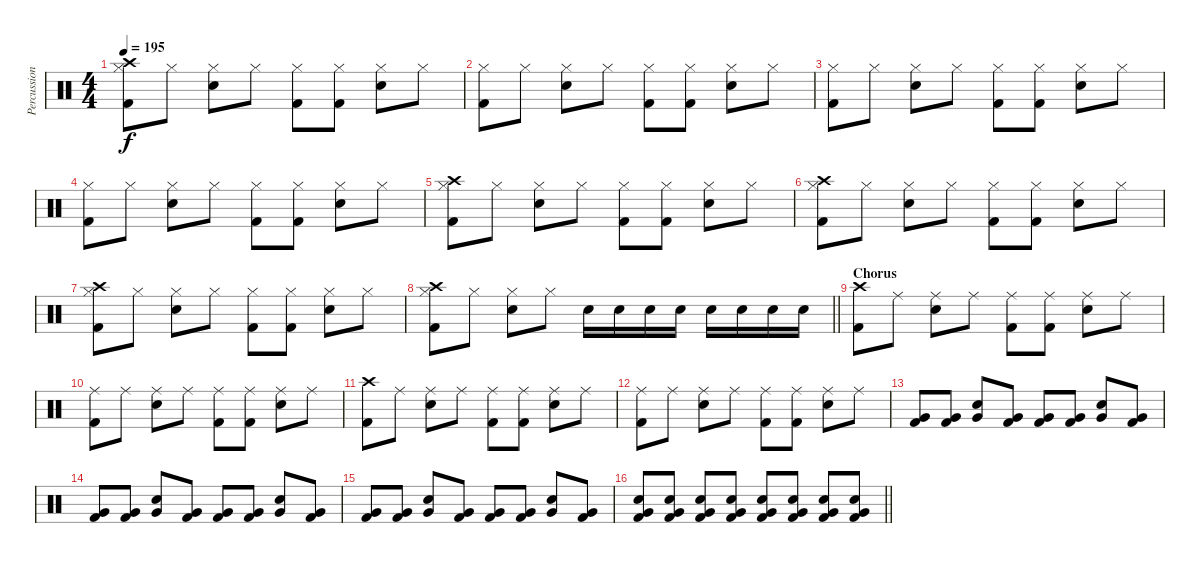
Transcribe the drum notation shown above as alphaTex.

\track ("Percussion" "Percussion") {instrument percussion}
\staff {score}
\articulation defaults
\ts (4 4)
\tempo 195
\clef neutral
\ks c
("Crash high (hit)" "Hi-Hat (closed)" "Kick (hit) 2").8{dy f} "Hi-Hat (closed)".8 ("Hi-Hat (closed)" "Electric Snare (hit)").8 "Hi-Hat (closed)".8 ("Hi-Hat (closed)" "Kick (hit) 2").8 ("Hi-Hat (closed)" "Kick (hit) 2").8 ("Hi-Hat (closed)" "Electric Snare (hit)").8 "Hi-Hat (closed)".8 |
("Hi-Hat (closed)" "Kick (hit) 2").8 "Hi-Hat (closed)".8 ("Hi-Hat (closed)" "Electric Snare (hit)").8 "Hi-Hat (closed)".8 ("Hi-Hat (closed)" "Kick (hit) 2").8 ("Hi-Hat (closed)" "Kick (hit) 2").8 ("Hi-Hat (closed)" "Electric Snare (hit)").8 "Hi-Hat (closed)".8 |
("Hi-Hat (closed)" "Kick (hit) 2").8 "Hi-Hat (closed)".8 ("Hi-Hat (closed)" "Electric Snare (hit)").8 "Hi-Hat (closed)".8 ("Hi-Hat (closed)" "Kick (hit) 2").8 ("Hi-Hat (closed)" "Kick (hit) 2").8 ("Hi-Hat (closed)" "Electric Snare (hit)").8 "Hi-Hat (closed)".8 |
("Hi-Hat (closed)" "Kick (hit) 2").8 "Hi-Hat (closed)".8 ("Hi-Hat (closed)" "Electric Snare (hit)").8 "Hi-Hat (closed)".8 ("Hi-Hat (closed)" "Kick (hit) 2").8 ("Hi-Hat (closed)" "Kick (hit) 2").8 ("Hi-Hat (closed)" "Electric Snare (hit)").8 "Hi-Hat (closed)".8 |
("Crash high (hit)" "Hi-Hat (closed)" "Kick (hit) 2").8 "Hi-Hat (closed)".8 ("Hi-Hat (closed)" "Electric Snare (hit)").8 "Hi-Hat (closed)".8 ("Hi-Hat (closed)" "Kick (hit) 2").8 ("Hi-Hat (closed)" "Kick (hit) 2").8 ("Hi-Hat (closed)" "Electric Snare (hit)").8 "Hi-Hat (closed)".8 |
("Crash high (hit)" "Hi-Hat (closed)" "Kick (hit) 2").8 "Hi-Hat (closed)".8 ("Hi-Hat (closed)" "Electric Snare (hit)").8 "Hi-Hat (closed)".8 ("Hi-Hat (closed)" "Kick (hit) 2").8 ("Hi-Hat (closed)" "Kick (hit) 2").8 ("Hi-Hat (closed)" "Electric Snare (hit)").8 "Hi-Hat (closed)".8 |
("Crash high (hit)" "Hi-Hat (closed)" "Kick (hit) 2").8 "Hi-Hat (closed)".8 ("Hi-Hat (closed)" "Electric Snare (hit)").8 "Hi-Hat (closed)".8 ("Hi-Hat (closed)" "Kick (hit) 2").8 ("Hi-Hat (closed)" "Kick (hit) 2").8 ("Hi-Hat (closed)" "Electric Snare (hit)").8 "Hi-Hat (closed)".8 |
\barLineRight lightlight
("Crash high (hit)" "Hi-Hat (closed)" "Kick (hit) 2").8 "Hi-Hat (closed)".8 ("Hi-Hat (closed)" "Electric Snare (hit)").8 "Hi-Hat (closed)".8 "Electric Snare (hit)".16 "Electric Snare (hit)".16 "Electric Snare (hit)".16 "Electric Snare (hit)".16 "Electric Snare (hit)".16 "Electric Snare (hit)".16 "Electric Snare (hit)".16 "Electric Snare (hit)".16 |
\section ("" "Chorus")
("Crash high (hit)" "Kick (hit) 2").8 "Ride (middle)".8 ("Ride (middle)" "Electric Snare (hit)").8 "Ride (middle)".8 ("Ride (middle)" "Kick (hit) 2").8 ("Ride (middle)" "Kick (hit) 2").8 ("Ride (middle)" "Electric Snare (hit)").8 "Ride (middle)".8 |
("Ride (middle)" "Kick (hit) 2").8 "Ride (middle)".8 ("Ride (middle)" "Electric Snare (hit)").8 "Ride (middle)".8 ("Ride (middle)" "Kick (hit) 2").8 ("Ride (middle)" "Kick (hit) 2").8 ("Ride (middle)" "Electric Snare (hit)").8 "Ride (middle)".8 |
("Crash high (hit)" "Kick (hit) 2").8 "Ride (middle)".8 ("Ride (middle)" "Electric Snare (hit)").8 "Ride (middle)".8 ("Ride (middle)" "Kick (hit) 2").8 ("Ride (middle)" "Kick (hit) 2").8 ("Ride (middle)" "Electric Snare (hit)").8 "Ride (middle)".8 |
("Ride (middle)" "Kick (hit) 2").8 "Ride (middle)".8 ("Ride (middle)" "Electric Snare (hit)").8 "Ride (middle)".8 ("Ride (middle)" "Kick (hit) 2").8 ("Ride (middle)" "Kick (hit) 2").8 ("Ride (middle)" "Electric Snare (hit)").8 "Ride (middle)".8 |
("Very Low Tom (hit)" "Kick (hit) 2").8 ("Very Low Tom (hit)" "Kick (hit) 2").8 ("Very Low Tom (hit)" "Electric Snare (hit)").8 ("Very Low Tom (hit)" "Kick (hit) 2").8 ("Very Low Tom (hit)" "Kick (hit) 2").8 ("Very Low Tom (hit)" "Kick (hit) 2").8 ("Very Low Tom (hit)" "Electric Snare (hit)").8 ("Very Low Tom (hit)" "Kick (hit) 2").8 |
("Very Low Tom (hit)" "Kick (hit) 2").8 ("Very Low Tom (hit)" "Kick (hit) 2").8 ("Very Low Tom (hit)" "Electric Snare (hit)").8 ("Very Low Tom (hit)" "Kick (hit) 2").8 ("Very Low Tom (hit)" "Kick (hit) 2").8 ("Very Low Tom (hit)" "Kick (hit) 2").8 ("Very Low Tom (hit)" "Electric Snare (hit)").8 ("Very Low Tom (hit)" "Kick (hit) 2").8 |
("Very Low Tom (hit)" "Kick (hit) 2").8 ("Very Low Tom (hit)" "Kick (hit) 2").8 ("Very Low Tom (hit)" "Electric Snare (hit)").8 ("Very Low Tom (hit)" "Kick (hit) 2").8 ("Very Low Tom (hit)" "Kick (hit) 2").8 ("Very Low Tom (hit)" "Kick (hit) 2").8 ("Very Low Tom (hit)" "Electric Snare (hit)").8 ("Very Low Tom (hit)" "Kick (hit) 2").8 |
\barLineRight lightlight
("Very Low Tom (hit)" "Electric Snare (hit)" "Kick (hit) 2").8 ("Very Low Tom (hit)" "Electric Snare (hit)" "Kick (hit) 2").8 ("Very Low Tom (hit)" "Electric Snare (hit)" "Kick (hit) 2").8 ("Very Low Tom (hit)" "Electric Snare (hit)" "Kick (hit) 2").8 ("Very Low Tom (hit)" "Electric Snare (hit)" "Kick (hit) 2").8 ("Very Low Tom (hit)" "Electric Snare (hit)" "Kick (hit) 2").8 ("Very Low Tom (hit)" "Electric Snare (hit)" "Kick (hit) 2").8 ("Very Low Tom (hit)" "Electric Snare (hit)" "Kick (hit) 2").8
